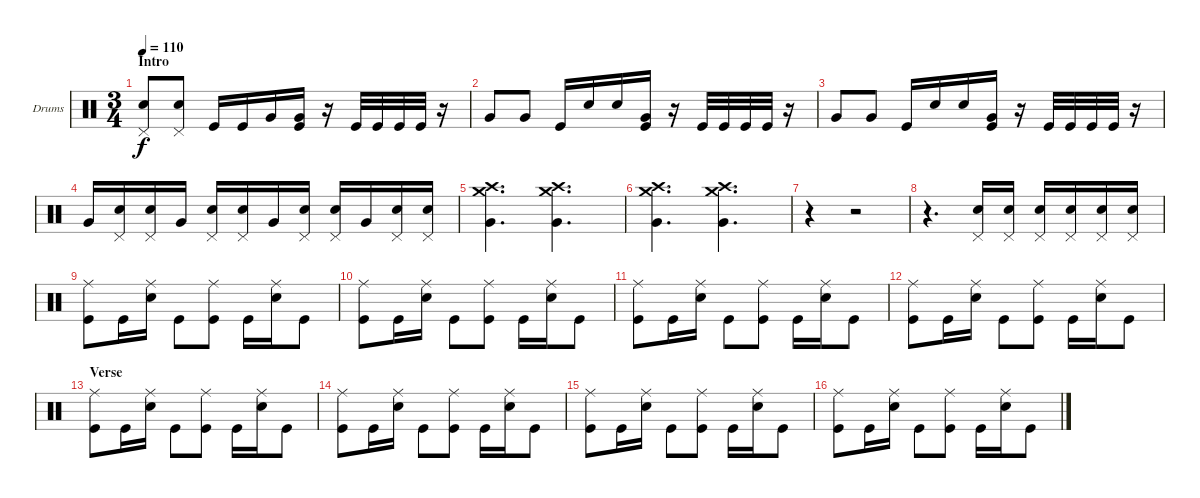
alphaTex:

\defaultSystemsLayout 4
\bracketExtendMode nobrackets
\firstSystemTrackNameOrientation horizontal
\otherSystemsTrackNameOrientation horizontal
\track ("Drumkit" "Drums") {instrument percussion}
\staff {score}
\articulation defaults
\ts (3 4)
\section ("" "Intro")
\tempo 110
\clef neutral
\ks c
("Pedal Hi-Hat (hit)" "Snare (hit) 2").8{dy f} ("Pedal Hi-Hat (hit)" "Snare (hit) 2").8 "Kick (hit)".16 "Kick (hit)".16 "Very Low Tom (hit)".16 ("Kick (hit)" "Very Low Tom (hit)").16 r.16 "Kick (hit)".32 "Kick (hit)".32 "Kick (hit)".32 "Kick (hit)".32 r.16 |
"Very Low Tom (hit)".8 "Very Low Tom (hit)".8 "Kick (hit)".16 "Snare (hit) 2".16 "Snare (hit) 2".16 ("Very Low Tom (hit)" "Kick (hit)").16 r.16 "Kick (hit)".32 "Kick (hit)".32 "Kick (hit)".32 "Kick (hit)".32 r.16 |
"Very Low Tom (hit)".8 "Very Low Tom (hit)".8 "Kick (hit)".16 "Snare (hit) 2".16 "Snare (hit) 2".16 ("Very Low Tom (hit)" "Kick (hit)").16 r.16 "Kick (hit)".32 "Kick (hit)".32 "Kick (hit)".32 "Kick (hit)".32 r.16 |
"Very Low Tom (hit)".16 ("Pedal Hi-Hat (hit)" "Snare (hit) 2").16 ("Pedal Hi-Hat (hit)" "Snare (hit) 2").16 "Very Low Tom (hit)".16 ("Pedal Hi-Hat (hit)" "Snare (hit) 2").16 ("Pedal Hi-Hat (hit)" "Snare (hit) 2").16 "Very Low Tom (hit)".16 ("Pedal Hi-Hat (hit)" "Snare (hit) 2").16 ("Pedal Hi-Hat (hit)" "Snare (hit) 2").16 "Very Low Tom (hit)".16 ("Pedal Hi-Hat (hit)" "Snare (hit) 2").16 ("Pedal Hi-Hat (hit)" "Snare (hit) 2").16 |
("Crash medium (hit)" "Crash high (hit)" "Very Low Tom (hit)").4{d} ("Crash medium (hit)" "Crash high (hit)" "Very Low Tom (hit)").4{d} |
("Crash medium (hit)" "Crash high (hit)" "Very Low Tom (hit)").4{d} ("Crash medium (hit)" "Crash high (hit)" "Very Low Tom (hit)").4{d} |
r.4 r.2 |
r.4{d} ("Pedal Hi-Hat (hit)" "Snare (hit) 2").16 ("Pedal Hi-Hat (hit)" "Snare (hit) 2").16 ("Pedal Hi-Hat (hit)" "Snare (hit) 2").16 ("Pedal Hi-Hat (hit)" "Snare (hit) 2").16 ("Pedal Hi-Hat (hit)" "Snare (hit) 2").16 ("Pedal Hi-Hat (hit)" "Snare (hit) 2").16 |
("Ride (middle)" "Kick (hit)").8 "Kick (hit)".16 ("Ride (middle)" "Snare (hit) 2").16 "Kick (hit)".8 ("Ride (middle)" "Kick (hit)").8 "Kick (hit)".16 ("Ride (middle)" "Snare (hit) 2").16 "Kick (hit)".8 |
("Ride (middle)" "Kick (hit)").8 "Kick (hit)".16 ("Ride (middle)" "Snare (hit) 2").16 "Kick (hit)".8 ("Ride (middle)" "Kick (hit)").8 "Kick (hit)".16 ("Ride (middle)" "Snare (hit) 2").16 "Kick (hit)".8 |
("Ride (middle)" "Kick (hit)").8 "Kick (hit)".16 ("Ride (middle)" "Snare (hit) 2").16 "Kick (hit)".8 ("Ride (middle)" "Kick (hit)").8 "Kick (hit)".16 ("Ride (middle)" "Snare (hit) 2").16 "Kick (hit)".8 |
("Ride (middle)" "Kick (hit)").8 "Kick (hit)".16 ("Ride (middle)" "Snare (hit) 2").16 "Kick (hit)".8 ("Ride (middle)" "Kick (hit)").8 "Kick (hit)".16 ("Ride (middle)" "Snare (hit) 2").16 "Kick (hit)".8 |
\section ("" "Verse")
("Ride (middle)" "Kick (hit)").8 "Kick (hit)".16 ("Ride (middle)" "Snare (hit) 2").16 "Kick (hit)".8 ("Ride (middle)" "Kick (hit)").8 "Kick (hit)".16 ("Ride (middle)" "Snare (hit) 2").16 "Kick (hit)".8 |
("Ride (middle)" "Kick (hit)").8 "Kick (hit)".16 ("Ride (middle)" "Snare (hit) 2").16 "Kick (hit)".8 ("Ride (middle)" "Kick (hit)").8 "Kick (hit)".16 ("Ride (middle)" "Snare (hit) 2").16 "Kick (hit)".8 |
("Ride (middle)" "Kick (hit)").8 "Kick (hit)".16 ("Ride (middle)" "Snare (hit) 2").16 "Kick (hit)".8 ("Ride (middle)" "Kick (hit)").8 "Kick (hit)".16 ("Ride (middle)" "Snare (hit) 2").16 "Kick (hit)".8 |
("Ride (middle)" "Kick (hit)").8 "Kick (hit)".16 ("Ride (middle)" "Snare (hit) 2").16 "Kick (hit)".8 ("Ride (middle)" "Kick (hit)").8 "Kick (hit)".16 ("Ride (middle)" "Snare (hit) 2").16 "Kick (hit)".8
